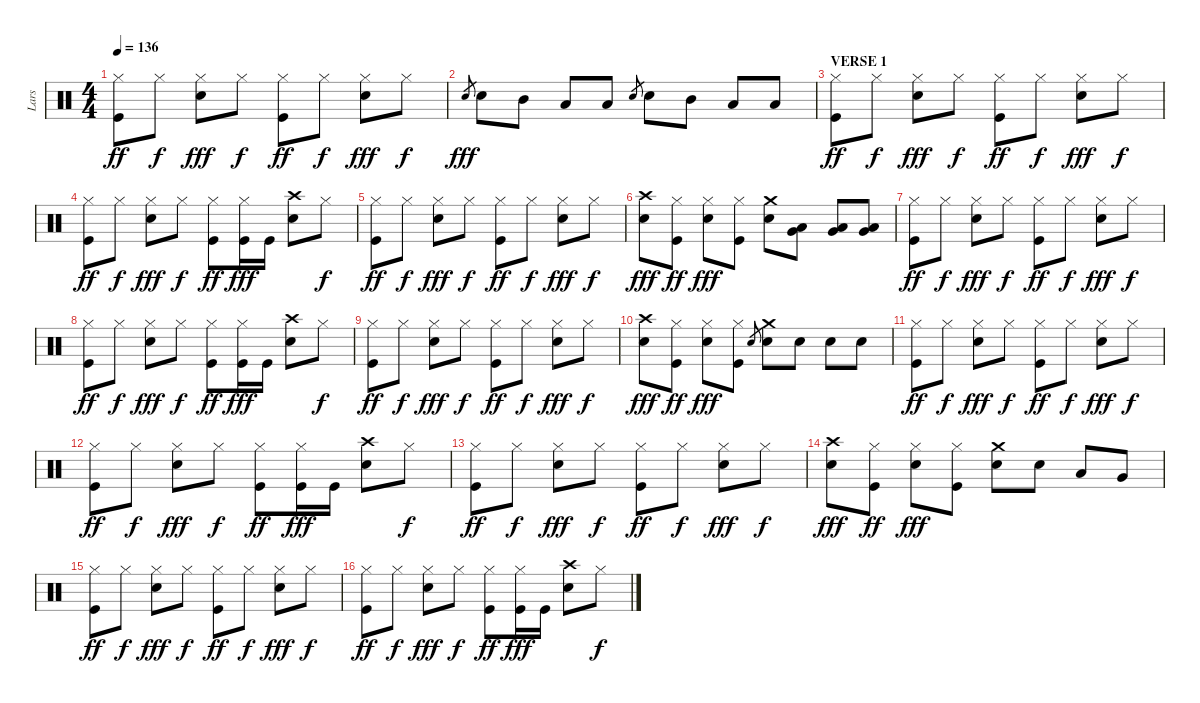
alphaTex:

\track ("Lars" "Lars") {instrument percussion}
\staff {score}
\articulation defaults
\ts (4 4)
\tempo 136
\clef neutral
\ks c
("Hi-Hat (closed)" "Kick (hit)").8{dy ff} "Hi-Hat (closed)".8{dy f} ("Hi-Hat (closed)" "Electric Snare (hit)").8{dy fff} "Hi-Hat (closed)".8{dy f} ("Hi-Hat (closed)" "Kick (hit)").8{dy ff} "Hi-Hat (closed)".8{dy f} ("Hi-Hat (closed)" "Electric Snare (hit)").8{dy fff} "Hi-Hat (closed)".8{dy f} |
"Electric Snare (hit)".8{gr dy fff} "Electric Snare (hit)".8 "Mid Tom (hit)".8 "Low Tom (hit)".8 "Low Floor Tom (hit)".8 "Electric Snare (hit)".8{gr} "Electric Snare (hit)".8 "Mid Tom (hit)".8 "Low Tom (hit)".8 "Low Floor Tom (hit)".8 |
\section ("" "VERSE 1")
("Hi-Hat (closed)" "Kick (hit)").8{dy ff} "Hi-Hat (closed)".8{dy f} ("Hi-Hat (closed)" "Electric Snare (hit)").8{dy fff} "Hi-Hat (closed)".8{dy f} ("Hi-Hat (closed)" "Kick (hit)").8{dy ff} "Hi-Hat (closed)".8{dy f} ("Hi-Hat (closed)" "Electric Snare (hit)").8{dy fff} "Hi-Hat (closed)".8{dy f} |
("Hi-Hat (closed)" "Kick (hit)").8{dy ff} "Hi-Hat (closed)".8{dy f} ("Hi-Hat (closed)" "Electric Snare (hit)").8{dy fff} "Hi-Hat (closed)".8{dy f} ("Hi-Hat (closed)" "Kick (hit)").8{dy ff} ("Hi-Hat (closed)" "Kick (hit)").16{dy fff} "Kick (hit)".16 ("Crash high (hit)" "Electric Snare (hit)").8 "Hi-Hat (closed)".8{dy f} |
("Hi-Hat (closed)" "Kick (hit)").8{dy ff} "Hi-Hat (closed)".8{dy f} ("Hi-Hat (closed)" "Electric Snare (hit)").8{dy fff} "Hi-Hat (closed)".8{dy f} ("Hi-Hat (closed)" "Kick (hit)").8{dy ff} "Hi-Hat (closed)".8{dy f} ("Hi-Hat (closed)" "Electric Snare (hit)").8{dy fff} "Hi-Hat (closed)".8{dy f} |
("Crash high (hit)" "Electric Snare (hit)").8{dy fff} ("Hi-Hat (closed)" "Kick (hit)").8{dy ff} ("Hi-Hat (closed)" "Electric Snare (hit)").8{dy fff} ("Hi-Hat (closed)" "Kick (hit)").8 ("Crash medium (hit)" "Electric Snare (hit)").8 ("Low Tom (hit)" "Very Low Tom (hit)").8 ("Low Tom (hit)" "Very Low Tom (hit)").8 ("Low Tom (hit)" "Very Low Tom (hit)").8 |
("Hi-Hat (closed)" "Kick (hit)").8{dy ff} "Hi-Hat (closed)".8{dy f} ("Hi-Hat (closed)" "Electric Snare (hit)").8{dy fff} "Hi-Hat (closed)".8{dy f} ("Hi-Hat (closed)" "Kick (hit)").8{dy ff} "Hi-Hat (closed)".8{dy f} ("Hi-Hat (closed)" "Electric Snare (hit)").8{dy fff} "Hi-Hat (closed)".8{dy f} |
("Hi-Hat (closed)" "Kick (hit)").8{dy ff} "Hi-Hat (closed)".8{dy f} ("Hi-Hat (closed)" "Electric Snare (hit)").8{dy fff} "Hi-Hat (closed)".8{dy f} ("Hi-Hat (closed)" "Kick (hit)").8{dy ff} ("Hi-Hat (closed)" "Kick (hit)").16{dy fff} "Kick (hit)".16 ("Crash high (hit)" "Electric Snare (hit)").8 "Hi-Hat (closed)".8{dy f} |
("Hi-Hat (closed)" "Kick (hit)").8{dy ff} "Hi-Hat (closed)".8{dy f} ("Hi-Hat (closed)" "Electric Snare (hit)").8{dy fff} "Hi-Hat (closed)".8{dy f} ("Hi-Hat (closed)" "Kick (hit)").8{dy ff} "Hi-Hat (closed)".8{dy f} ("Hi-Hat (closed)" "Electric Snare (hit)").8{dy fff} "Hi-Hat (closed)".8{dy f} |
("Crash high (hit)" "Electric Snare (hit)").8{dy fff} ("Hi-Hat (closed)" "Kick (hit)").8{dy ff} ("Hi-Hat (closed)" "Electric Snare (hit)").8{dy fff} ("Hi-Hat (closed)" "Kick (hit)").8 "Electric Snare (hit)".8{gr} ("Crash medium (hit)" "Electric Snare (hit)").8 "Electric Snare (hit)".8 "Electric Snare (hit)".8 "Electric Snare (hit)".8 |
("Hi-Hat (closed)" "Kick (hit)").8{dy ff} "Hi-Hat (closed)".8{dy f} ("Hi-Hat (closed)" "Electric Snare (hit)").8{dy fff} "Hi-Hat (closed)".8{dy f} ("Hi-Hat (closed)" "Kick (hit)").8{dy ff} "Hi-Hat (closed)".8{dy f} ("Hi-Hat (closed)" "Electric Snare (hit)").8{dy fff} "Hi-Hat (closed)".8{dy f} |
("Hi-Hat (closed)" "Kick (hit)").8{dy ff} "Hi-Hat (closed)".8{dy f} ("Hi-Hat (closed)" "Electric Snare (hit)").8{dy fff} "Hi-Hat (closed)".8{dy f} ("Hi-Hat (closed)" "Kick (hit)").8{dy ff} ("Hi-Hat (closed)" "Kick (hit)").16{dy fff} "Kick (hit)".16 ("Crash high (hit)" "Electric Snare (hit)").8 "Hi-Hat (closed)".8{dy f} |
("Hi-Hat (closed)" "Kick (hit)").8{dy ff} "Hi-Hat (closed)".8{dy f} ("Hi-Hat (closed)" "Electric Snare (hit)").8{dy fff} "Hi-Hat (closed)".8{dy f} ("Hi-Hat (closed)" "Kick (hit)").8{dy ff} "Hi-Hat (closed)".8{dy f} ("Hi-Hat (closed)" "Electric Snare (hit)").8{dy fff} "Hi-Hat (closed)".8{dy f} |
("Crash high (hit)" "Electric Snare (hit)").8{dy fff} ("Hi-Hat (closed)" "Kick (hit)").8{dy ff} ("Hi-Hat (closed)" "Electric Snare (hit)").8{dy fff} ("Hi-Hat (closed)" "Kick (hit)").8 ("Crash medium (hit)" "Electric Snare (hit)").8 "Electric Snare (hit)".8 "Low Tom (hit)".8 "Very Low Tom (hit)".8 |
("Hi-Hat (closed)" "Kick (hit)").8{dy ff} "Hi-Hat (closed)".8{dy f} ("Hi-Hat (closed)" "Electric Snare (hit)").8{dy fff} "Hi-Hat (closed)".8{dy f} ("Hi-Hat (closed)" "Kick (hit)").8{dy ff} "Hi-Hat (closed)".8{dy f} ("Hi-Hat (closed)" "Electric Snare (hit)").8{dy fff} "Hi-Hat (closed)".8{dy f} |
("Hi-Hat (closed)" "Kick (hit)").8{dy ff} "Hi-Hat (closed)".8{dy f} ("Hi-Hat (closed)" "Electric Snare (hit)").8{dy fff} "Hi-Hat (closed)".8{dy f} ("Hi-Hat (closed)" "Kick (hit)").8{dy ff} ("Hi-Hat (closed)" "Kick (hit)").16{dy fff} "Kick (hit)".16 ("Crash high (hit)" "Electric Snare (hit)").8 "Hi-Hat (closed)".8{dy f}
